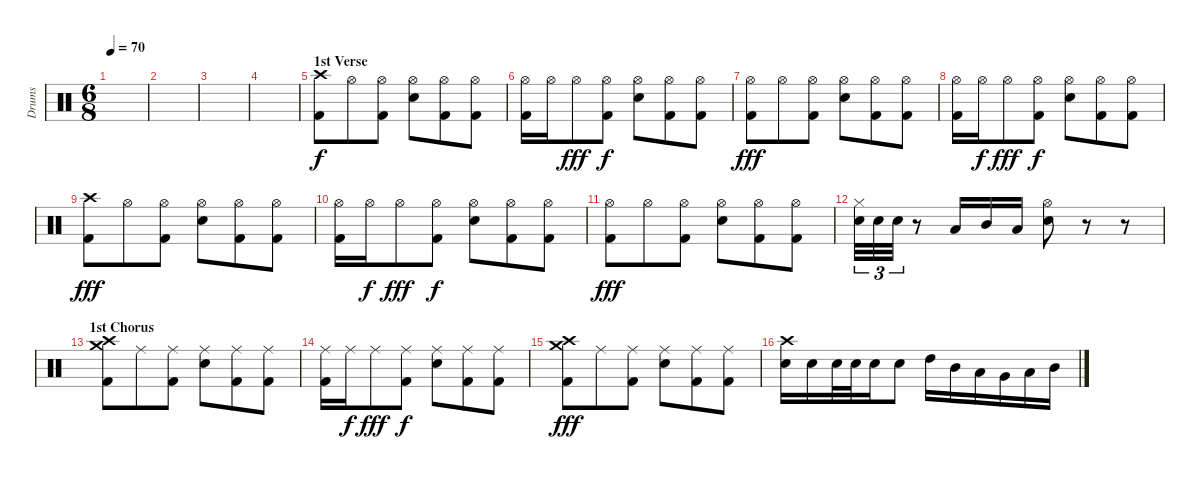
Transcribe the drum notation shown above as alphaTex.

\track ("Drums" "Drums") {instrument percussion}
\staff {score}
\articulation defaults
\ts (6 8)
\tempo 70
\clef neutral
\ks c
|
|
|
|
\section ("" "1st Verse")
("Crash high (hit)" "Kick (hit) 2").8 "Hi-Hat (open)".8 ("Hi-Hat (open)" "Kick (hit) 2").8 ("Hi-Hat (open)" "Electric Snare (hit)").8 ("Hi-Hat (open)" "Kick (hit) 2").8 ("Hi-Hat (open)" "Kick (hit) 2").8 |
("Hi-Hat (open)" "Kick (hit) 2").16 "Hi-Hat (open)".16{dy f} "Hi-Hat (open)".8{dy fff} ("Hi-Hat (open)" "Kick (hit) 2").8{dy f} ("Hi-Hat (open)" "Electric Snare (hit)").8 ("Hi-Hat (open)" "Kick (hit) 2").8 ("Hi-Hat (open)" "Kick (hit) 2").8 |
("Hi-Hat (open)" "Kick (hit) 2").8{dy fff} "Hi-Hat (open)".8 ("Hi-Hat (open)" "Kick (hit) 2").8 ("Hi-Hat (open)" "Electric Snare (hit)").8 ("Hi-Hat (open)" "Kick (hit) 2").8 ("Hi-Hat (open)" "Kick (hit) 2").8 |
("Hi-Hat (open)" "Kick (hit) 2").16 "Hi-Hat (open)".16{dy f} "Hi-Hat (open)".8{dy fff} ("Hi-Hat (open)" "Kick (hit) 2").8{dy f} ("Hi-Hat (open)" "Electric Snare (hit)").8 ("Hi-Hat (open)" "Kick (hit) 2").8 ("Hi-Hat (open)" "Kick (hit) 2").8 |
("Crash high (hit)" "Kick (hit) 2").8{dy fff} "Hi-Hat (open)".8 ("Hi-Hat (open)" "Kick (hit) 2").8 ("Hi-Hat (open)" "Electric Snare (hit)").8 ("Hi-Hat (open)" "Kick (hit) 2").8 ("Hi-Hat (open)" "Kick (hit) 2").8 |
("Hi-Hat (open)" "Kick (hit) 2").16 "Hi-Hat (open)".16{dy f} "Hi-Hat (open)".8{dy fff} ("Hi-Hat (open)" "Kick (hit) 2").8{dy f} ("Hi-Hat (open)" "Electric Snare (hit)").8 ("Hi-Hat (open)" "Kick (hit) 2").8 ("Hi-Hat (open)" "Kick (hit) 2").8 |
("Hi-Hat (open)" "Kick (hit) 2").8{dy fff} "Hi-Hat (open)".8 ("Hi-Hat (open)" "Kick (hit) 2").8 ("Hi-Hat (open)" "Electric Snare (hit)").8 ("Hi-Hat (open)" "Kick (hit) 2").8 ("Hi-Hat (open)" "Kick (hit) 2").8 |
("Hi-Hat (closed)" "Electric Snare (hit)").32{tu (3 2)} "Electric Snare (hit)".32{tu (3 2)} "Electric Snare (hit)".32{tu (3 2)} r.8 "Low Tom (hit)".16 "Mid Tom (hit)".16 "Low Tom (hit)".16 ("Hi-Hat (open)" "Electric Snare (hit)").8 r.8 r.8 |
\section ("" "1st Chorus")
("Crash high (hit)" "Crash medium (hit)" "Kick (hit) 2").8 "Ride (middle)".8 ("Ride (middle)" "Kick (hit) 2").8 ("Ride (middle)" "Electric Snare (hit)").8 ("Ride (middle)" "Kick (hit) 2").8 ("Ride (middle)" "Kick (hit) 2").8 |
("Ride (middle)" "Kick (hit) 2").16 "Ride (middle)".16{dy f} "Ride (middle)".8{dy fff} ("Ride (middle)" "Kick (hit) 2").8{dy f} ("Ride (middle)" "Electric Snare (hit)").8 ("Ride (middle)" "Kick (hit) 2").8 ("Ride (middle)" "Kick (hit) 2").8 |
("Crash high (hit)" "Crash medium (hit)" "Kick (hit) 2").8{dy fff} "Ride (middle)".8 ("Ride (middle)" "Kick (hit) 2").8 ("Ride (middle)" "Electric Snare (hit)").8 ("Ride (middle)" "Kick (hit) 2").8 ("Ride (middle)" "Kick (hit) 2").8 |
("Crash high (hit)" "Electric Snare (hit)").16 "Electric Snare (hit)".16 "Electric Snare (hit)".32 "Electric Snare (hit)".32 "Electric Snare (hit)".16 "Electric Snare (hit)".8 "High Tom (hit)".16 "Mid Tom (hit)".16 "Low Tom (hit)".16 "Very Low Tom (hit)".16 "Low Tom (hit)".16 "Mid Tom (hit)".16
